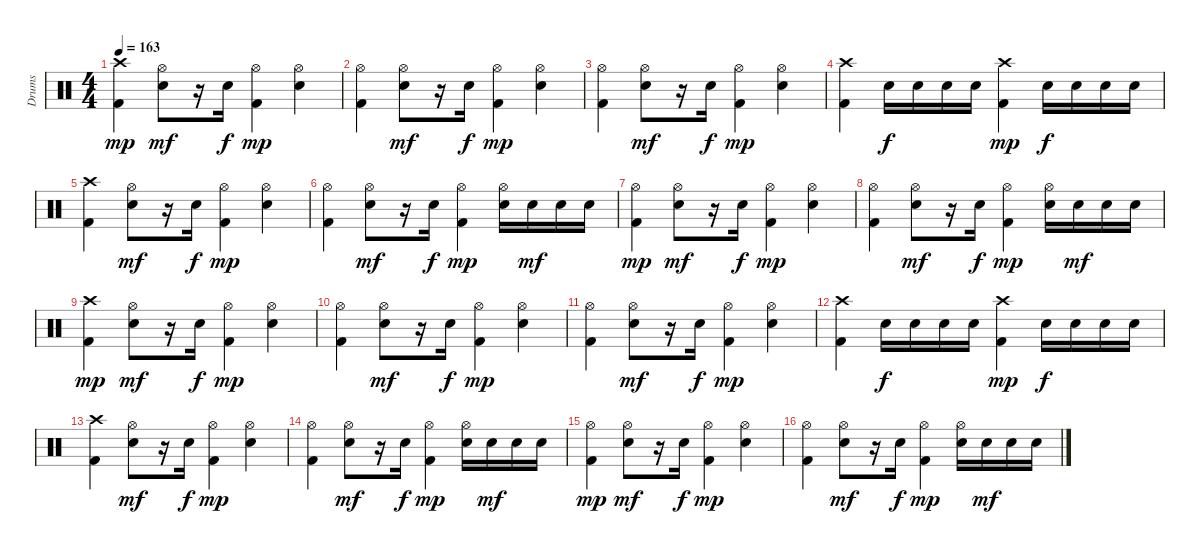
\track ("Drums" "Drums") {instrument percussion}
\staff {score}
\articulation defaults
\ts (4 4)
\tempo 163
\clef neutral
\ks c
("Crash high (hit)" "Kick (hit) 2").4{dy mp} ("Hi-Hat (open)" "Snare (hit) 2").8{dy mf} r.16 "Snare (hit) 2".16{dy f} ("Hi-Hat (open)" "Kick (hit) 2").4{dy mp} ("Hi-Hat (open)" "Snare (hit) 2").4 |
("Hi-Hat (open)" "Kick (hit) 2").4 ("Hi-Hat (open)" "Snare (hit) 2").8{dy mf} r.16 "Snare (hit) 2".16{dy f} ("Hi-Hat (open)" "Kick (hit) 2").4{dy mp} ("Hi-Hat (open)" "Snare (hit) 2").4 |
("Hi-Hat (open)" "Kick (hit) 2").4 ("Hi-Hat (open)" "Snare (hit) 2").8{dy mf} r.16 "Snare (hit) 2".16{dy f} ("Hi-Hat (open)" "Kick (hit) 2").4{dy mp} ("Hi-Hat (open)" "Snare (hit) 2").4 |
("Crash high (hit)" "Kick (hit) 2").4 "Snare (hit) 2".16{dy f} "Snare (hit) 2".16 "Snare (hit) 2".16 "Snare (hit) 2".16 ("Crash high (hit)" "Kick (hit) 2").4{dy mp} "Snare (hit) 2".16{dy f} "Snare (hit) 2".16 "Snare (hit) 2".16 "Snare (hit) 2".16 |
("Crash high (hit)" "Kick (hit) 2").4 ("Hi-Hat (open)" "Snare (hit) 2").8{dy mf} r.16 "Snare (hit) 2".16{dy f} ("Hi-Hat (open)" "Kick (hit) 2").4{dy mp} ("Hi-Hat (open)" "Snare (hit) 2").4 |
("Hi-Hat (open)" "Kick (hit) 2").4 ("Hi-Hat (open)" "Snare (hit) 2").8{dy mf} r.16 "Snare (hit) 2".16{dy f} ("Hi-Hat (open)" "Kick (hit) 2").4{dy mp} ("Hi-Hat (open)" "Snare (hit) 2").16 "Snare (hit) 2".16{dy mf} "Snare (hit) 2".16 "Snare (hit) 2".16 |
("Hi-Hat (open)" "Kick (hit) 2").4{dy mp volume 8} ("Hi-Hat (open)" "Snare (hit) 2").8{dy mf} r.16 "Snare (hit) 2".16{dy f} ("Hi-Hat (open)" "Kick (hit) 2").4{dy mp} ("Hi-Hat (open)" "Snare (hit) 2").4 |
("Hi-Hat (open)" "Kick (hit) 2").4 ("Hi-Hat (open)" "Snare (hit) 2").8{dy mf} r.16 "Snare (hit) 2".16{dy f} ("Hi-Hat (open)" "Kick (hit) 2").4{dy mp} ("Hi-Hat (open)" "Snare (hit) 2").16 "Snare (hit) 2".16{dy mf} "Snare (hit) 2".16 "Snare (hit) 2".16 |
("Crash high (hit)" "Kick (hit) 2").4{dy mp} ("Hi-Hat (open)" "Snare (hit) 2").8{dy mf} r.16 "Snare (hit) 2".16{dy f} ("Hi-Hat (open)" "Kick (hit) 2").4{dy mp} ("Hi-Hat (open)" "Snare (hit) 2").4 |
("Hi-Hat (open)" "Kick (hit) 2").4 ("Hi-Hat (open)" "Snare (hit) 2").8{dy mf} r.16 "Snare (hit) 2".16{dy f} ("Hi-Hat (open)" "Kick (hit) 2").4{dy mp} ("Hi-Hat (open)" "Snare (hit) 2").4 |
("Hi-Hat (open)" "Kick (hit) 2").4{volume 5} ("Hi-Hat (open)" "Snare (hit) 2").8{dy mf} r.16 "Snare (hit) 2".16{dy f} ("Hi-Hat (open)" "Kick (hit) 2").4{dy mp} ("Hi-Hat (open)" "Snare (hit) 2").4 |
("Crash high (hit)" "Kick (hit) 2").4 "Snare (hit) 2".16{dy f} "Snare (hit) 2".16 "Snare (hit) 2".16 "Snare (hit) 2".16 ("Crash high (hit)" "Kick (hit) 2").4{dy mp} "Snare (hit) 2".16{dy f} "Snare (hit) 2".16 "Snare (hit) 2".16 "Snare (hit) 2".16 |
("Crash high (hit)" "Kick (hit) 2").4 ("Hi-Hat (open)" "Snare (hit) 2").8{dy mf} r.16 "Snare (hit) 2".16{dy f} ("Hi-Hat (open)" "Kick (hit) 2").4{dy mp} ("Hi-Hat (open)" "Snare (hit) 2").4 |
("Hi-Hat (open)" "Kick (hit) 2").4 ("Hi-Hat (open)" "Snare (hit) 2").8{dy mf} r.16 "Snare (hit) 2".16{dy f} ("Hi-Hat (open)" "Kick (hit) 2").4{dy mp} ("Hi-Hat (open)" "Snare (hit) 2").16 "Snare (hit) 2".16{dy mf} "Snare (hit) 2".16 "Snare (hit) 2".16 |
("Hi-Hat (open)" "Kick (hit) 2").4{dy mp volume 0} ("Hi-Hat (open)" "Snare (hit) 2").8{dy mf} r.16 "Snare (hit) 2".16{dy f} ("Hi-Hat (open)" "Kick (hit) 2").4{dy mp} ("Hi-Hat (open)" "Snare (hit) 2").4 |
("Hi-Hat (open)" "Kick (hit) 2").4 ("Hi-Hat (open)" "Snare (hit) 2").8{dy mf} r.16 "Snare (hit) 2".16{dy f} ("Hi-Hat (open)" "Kick (hit) 2").4{dy mp} ("Hi-Hat (open)" "Snare (hit) 2").16 "Snare (hit) 2".16{dy mf} "Snare (hit) 2".16 "Snare (hit) 2".16
